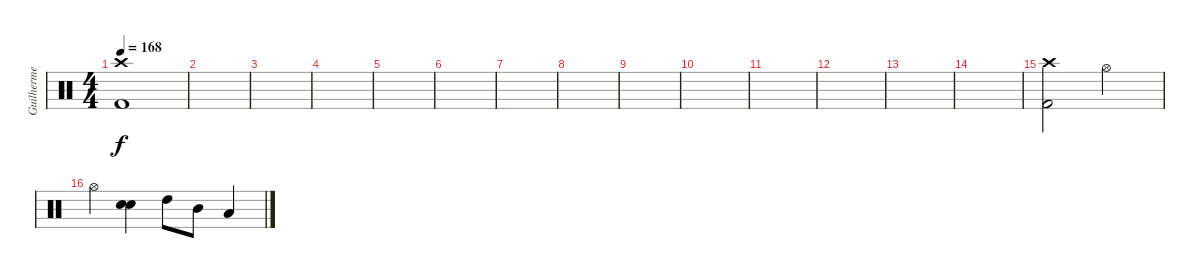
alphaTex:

\track ("Guilherme" "Guilherme") {instrument percussion}
\staff {score}
\articulation defaults
\ts (4 4)
\tempo 168
\clef neutral
\ks c
("Crash high (hit)" "Kick (hit) 2").1{dy f} |
|
|
|
|
|
|
|
|
|
|
|
|
|
("Crash high (hit)" "Kick (hit) 2").2 "Hi-Hat (open)".2 |
"Hi-Hat (open)".4 ("Snare (hit) 2" "Snare (hit) 2").4{bd 240} "High Tom (hit)".8 "Mid Tom (hit)".8 "Low Tom (hit)".4
